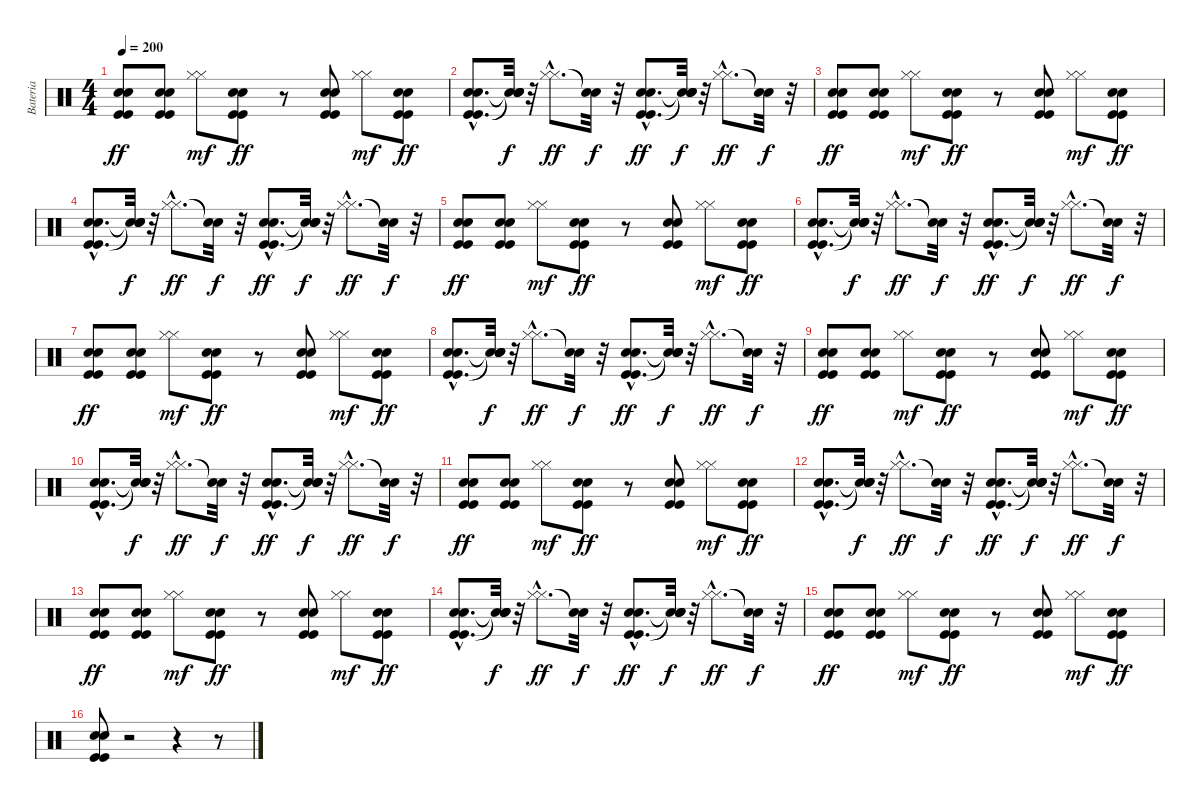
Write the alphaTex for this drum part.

\track ("Bateria" "Bateria") {instrument percussion}
\staff {score}
\articulation defaults
\ts (4 4)
\tempo 200
\clef neutral
\ks c
("Kick (hit)" "Snare (hit) 2" "Kick (hit)" "Snare (hit) 2").8{dy ff} ("Kick (hit)" "Snare (hit) 2" "Kick (hit)" "Snare (hit) 2").8 ("Hi-Hat (closed)" "Hi-Hat (closed)").8{dy mf} ("Kick (hit)" "Snare (hit) 2" "Kick (hit)" "Snare (hit) 2").8{dy ff} r.8 ("Kick (hit)" "Snare (hit) 2" "Kick (hit)" "Snare (hit) 2").8 ("Hi-Hat (closed)" "Hi-Hat (closed)").8{dy mf} ("Kick (hit)" "Snare (hit) 2" "Kick (hit)" "Snare (hit) 2").8{dy ff} |
("Kick (hit)"{hac} "Snare (hit) 2"{hac} "Kick (hit)"{hac} "Snare (hit) 2"{hac}).8{d} ("Snare (hit)"{t} "Snare (hit)"{t} "Snare (hit)"{t} "Snare (hit)"{t}).32{dy f} r.32 ("Hi-Hat (closed)"{hac} "Hi-Hat (closed)"{hac}).8{d dy ff} ("Snare (hit)"{t} "Snare (hit)"{t}).32{dy f} r.32 ("Kick (hit)"{hac} "Snare (hit) 2"{hac} "Kick (hit)"{hac} "Snare (hit) 2"{hac}).8{d dy ff} ("Snare (hit)"{t} "Snare (hit)"{t} "Snare (hit)"{t} "Snare (hit)"{t}).32{dy f} r.32 ("Hi-Hat (closed)"{hac} "Hi-Hat (closed)"{hac}).8{d dy ff} ("Snare (hit)"{t} "Snare (hit)"{t}).32{dy f} r.32 |
("Kick (hit)" "Snare (hit) 2" "Kick (hit)" "Snare (hit) 2").8{dy ff} ("Kick (hit)" "Snare (hit) 2" "Kick (hit)" "Snare (hit) 2").8 ("Hi-Hat (closed)" "Hi-Hat (closed)").8{dy mf} ("Kick (hit)" "Snare (hit) 2" "Kick (hit)" "Snare (hit) 2").8{dy ff} r.8 ("Kick (hit)" "Snare (hit) 2" "Kick (hit)" "Snare (hit) 2").8 ("Hi-Hat (closed)" "Hi-Hat (closed)").8{dy mf} ("Kick (hit)" "Snare (hit) 2" "Kick (hit)" "Snare (hit) 2").8{dy ff} |
("Kick (hit)"{hac} "Snare (hit) 2"{hac} "Kick (hit)"{hac} "Snare (hit) 2"{hac}).8{d} ("Snare (hit)"{t} "Snare (hit)"{t} "Snare (hit)"{t} "Snare (hit)"{t}).32{dy f} r.32 ("Hi-Hat (closed)"{hac} "Hi-Hat (closed)"{hac}).8{d dy ff} ("Snare (hit)"{t} "Snare (hit)"{t}).32{dy f} r.32 ("Kick (hit)"{hac} "Snare (hit) 2"{hac} "Kick (hit)"{hac} "Snare (hit) 2"{hac}).8{d dy ff} ("Snare (hit)"{t} "Snare (hit)"{t} "Snare (hit)"{t} "Snare (hit)"{t}).32{dy f} r.32 ("Hi-Hat (closed)"{hac} "Hi-Hat (closed)"{hac}).8{d dy ff} ("Snare (hit)"{t} "Snare (hit)"{t}).32{dy f} r.32 |
("Kick (hit)" "Snare (hit) 2" "Kick (hit)" "Snare (hit) 2").8{dy ff} ("Kick (hit)" "Snare (hit) 2" "Kick (hit)" "Snare (hit) 2").8 ("Hi-Hat (closed)" "Hi-Hat (closed)").8{dy mf} ("Kick (hit)" "Snare (hit) 2" "Kick (hit)" "Snare (hit) 2").8{dy ff} r.8 ("Kick (hit)" "Snare (hit) 2" "Kick (hit)" "Snare (hit) 2").8 ("Hi-Hat (closed)" "Hi-Hat (closed)").8{dy mf} ("Kick (hit)" "Snare (hit) 2" "Kick (hit)" "Snare (hit) 2").8{dy ff} |
("Kick (hit)"{hac} "Snare (hit) 2"{hac} "Kick (hit)"{hac} "Snare (hit) 2"{hac}).8{d} ("Snare (hit)"{t} "Snare (hit)"{t} "Snare (hit)"{t} "Snare (hit)"{t}).32{dy f} r.32 ("Hi-Hat (closed)"{hac} "Hi-Hat (closed)"{hac}).8{d dy ff} ("Snare (hit)"{t} "Snare (hit)"{t}).32{dy f} r.32 ("Kick (hit)"{hac} "Snare (hit) 2"{hac} "Kick (hit)"{hac} "Snare (hit) 2"{hac}).8{d dy ff} ("Snare (hit)"{t} "Snare (hit)"{t} "Snare (hit)"{t} "Snare (hit)"{t}).32{dy f} r.32 ("Hi-Hat (closed)"{hac} "Hi-Hat (closed)"{hac}).8{d dy ff} ("Snare (hit)"{t} "Snare (hit)"{t}).32{dy f} r.32 |
("Kick (hit)" "Snare (hit) 2" "Kick (hit)" "Snare (hit) 2").8{dy ff} ("Kick (hit)" "Snare (hit) 2" "Kick (hit)" "Snare (hit) 2").8 ("Hi-Hat (closed)" "Hi-Hat (closed)").8{dy mf} ("Kick (hit)" "Snare (hit) 2" "Kick (hit)" "Snare (hit) 2").8{dy ff} r.8 ("Kick (hit)" "Snare (hit) 2" "Kick (hit)" "Snare (hit) 2").8 ("Hi-Hat (closed)" "Hi-Hat (closed)").8{dy mf} ("Kick (hit)" "Snare (hit) 2" "Kick (hit)" "Snare (hit) 2").8{dy ff} |
("Kick (hit)"{hac} "Snare (hit) 2"{hac} "Kick (hit)"{hac} "Snare (hit) 2"{hac}).8{d} ("Snare (hit)"{t} "Snare (hit)"{t} "Snare (hit)"{t} "Snare (hit)"{t}).32{dy f} r.32 ("Hi-Hat (closed)"{hac} "Hi-Hat (closed)"{hac}).8{d dy ff} ("Snare (hit)"{t} "Snare (hit)"{t}).32{dy f} r.32 ("Kick (hit)"{hac} "Snare (hit) 2"{hac} "Kick (hit)"{hac} "Snare (hit) 2"{hac}).8{d dy ff} ("Snare (hit)"{t} "Snare (hit)"{t} "Snare (hit)"{t} "Snare (hit)"{t}).32{dy f} r.32 ("Hi-Hat (closed)"{hac} "Hi-Hat (closed)"{hac}).8{d dy ff} ("Snare (hit)"{t} "Snare (hit)"{t}).32{dy f} r.32 |
("Kick (hit)" "Snare (hit) 2" "Kick (hit)" "Snare (hit) 2").8{dy ff} ("Kick (hit)" "Snare (hit) 2" "Kick (hit)" "Snare (hit) 2").8 ("Hi-Hat (closed)" "Hi-Hat (closed)").8{dy mf} ("Kick (hit)" "Snare (hit) 2" "Kick (hit)" "Snare (hit) 2").8{dy ff} r.8 ("Kick (hit)" "Snare (hit) 2" "Kick (hit)" "Snare (hit) 2").8 ("Hi-Hat (closed)" "Hi-Hat (closed)").8{dy mf} ("Kick (hit)" "Snare (hit) 2" "Kick (hit)" "Snare (hit) 2").8{dy ff} |
("Kick (hit)"{hac} "Snare (hit) 2"{hac} "Kick (hit)"{hac} "Snare (hit) 2"{hac}).8{d} ("Snare (hit)"{t} "Snare (hit)"{t} "Snare (hit)"{t} "Snare (hit)"{t}).32{dy f} r.32 ("Hi-Hat (closed)"{hac} "Hi-Hat (closed)"{hac}).8{d dy ff} ("Snare (hit)"{t} "Snare (hit)"{t}).32{dy f} r.32 ("Kick (hit)"{hac} "Snare (hit) 2"{hac} "Kick (hit)"{hac} "Snare (hit) 2"{hac}).8{d dy ff} ("Snare (hit)"{t} "Snare (hit)"{t} "Snare (hit)"{t} "Snare (hit)"{t}).32{dy f} r.32 ("Hi-Hat (closed)"{hac} "Hi-Hat (closed)"{hac}).8{d dy ff} ("Snare (hit)"{t} "Snare (hit)"{t}).32{dy f} r.32 |
("Kick (hit)" "Snare (hit) 2" "Kick (hit)" "Snare (hit) 2").8{dy ff} ("Kick (hit)" "Snare (hit) 2" "Kick (hit)" "Snare (hit) 2").8 ("Hi-Hat (closed)" "Hi-Hat (closed)").8{dy mf} ("Kick (hit)" "Snare (hit) 2" "Kick (hit)" "Snare (hit) 2").8{dy ff} r.8 ("Kick (hit)" "Snare (hit) 2" "Kick (hit)" "Snare (hit) 2").8 ("Hi-Hat (closed)" "Hi-Hat (closed)").8{dy mf} ("Kick (hit)" "Snare (hit) 2" "Kick (hit)" "Snare (hit) 2").8{dy ff} |
("Kick (hit)"{hac} "Snare (hit) 2"{hac} "Kick (hit)"{hac} "Snare (hit) 2"{hac}).8{d} ("Snare (hit)"{t} "Snare (hit)"{t} "Snare (hit)"{t} "Snare (hit)"{t}).32{dy f} r.32 ("Hi-Hat (closed)"{hac} "Hi-Hat (closed)"{hac}).8{d dy ff} ("Snare (hit)"{t} "Snare (hit)"{t}).32{dy f} r.32 ("Kick (hit)"{hac} "Snare (hit) 2"{hac} "Kick (hit)"{hac} "Snare (hit) 2"{hac}).8{d dy ff} ("Snare (hit)"{t} "Snare (hit)"{t} "Snare (hit)"{t} "Snare (hit)"{t}).32{dy f} r.32 ("Hi-Hat (closed)"{hac} "Hi-Hat (closed)"{hac}).8{d dy ff} ("Snare (hit)"{t} "Snare (hit)"{t}).32{dy f} r.32 |
("Kick (hit)" "Snare (hit) 2" "Kick (hit)" "Snare (hit) 2").8{dy ff} ("Kick (hit)" "Snare (hit) 2" "Kick (hit)" "Snare (hit) 2").8 ("Hi-Hat (closed)" "Hi-Hat (closed)").8{dy mf} ("Kick (hit)" "Snare (hit) 2" "Kick (hit)" "Snare (hit) 2").8{dy ff} r.8 ("Kick (hit)" "Snare (hit) 2" "Kick (hit)" "Snare (hit) 2").8 ("Hi-Hat (closed)" "Hi-Hat (closed)").8{dy mf} ("Kick (hit)" "Snare (hit) 2" "Kick (hit)" "Snare (hit) 2").8{dy ff} |
("Kick (hit)"{hac} "Snare (hit) 2"{hac} "Kick (hit)"{hac} "Snare (hit) 2"{hac}).8{d} ("Snare (hit)"{t} "Snare (hit)"{t} "Snare (hit)"{t} "Snare (hit)"{t}).32{dy f} r.32 ("Hi-Hat (closed)"{hac} "Hi-Hat (closed)"{hac}).8{d dy ff} ("Snare (hit)"{t} "Snare (hit)"{t}).32{dy f} r.32 ("Kick (hit)"{hac} "Snare (hit) 2"{hac} "Kick (hit)"{hac} "Snare (hit) 2"{hac}).8{d dy ff} ("Snare (hit)"{t} "Snare (hit)"{t} "Snare (hit)"{t} "Snare (hit)"{t}).32{dy f} r.32 ("Hi-Hat (closed)"{hac} "Hi-Hat (closed)"{hac}).8{d dy ff} ("Snare (hit)"{t} "Snare (hit)"{t}).32{dy f} r.32 |
("Kick (hit)" "Snare (hit) 2" "Kick (hit)" "Snare (hit) 2").8{dy ff} ("Kick (hit)" "Snare (hit) 2" "Kick (hit)" "Snare (hit) 2").8 ("Hi-Hat (closed)" "Hi-Hat (closed)").8{dy mf} ("Kick (hit)" "Snare (hit) 2" "Kick (hit)" "Snare (hit) 2").8{dy ff} r.8 ("Kick (hit)" "Snare (hit) 2" "Kick (hit)" "Snare (hit) 2").8 ("Hi-Hat (closed)" "Hi-Hat (closed)").8{dy mf} ("Kick (hit)" "Snare (hit) 2" "Kick (hit)" "Snare (hit) 2").8{dy ff} |
("Kick (hit)" "Snare (hit) 2" "Kick (hit)" "Snare (hit) 2").8 r.2 r.4 r.8
